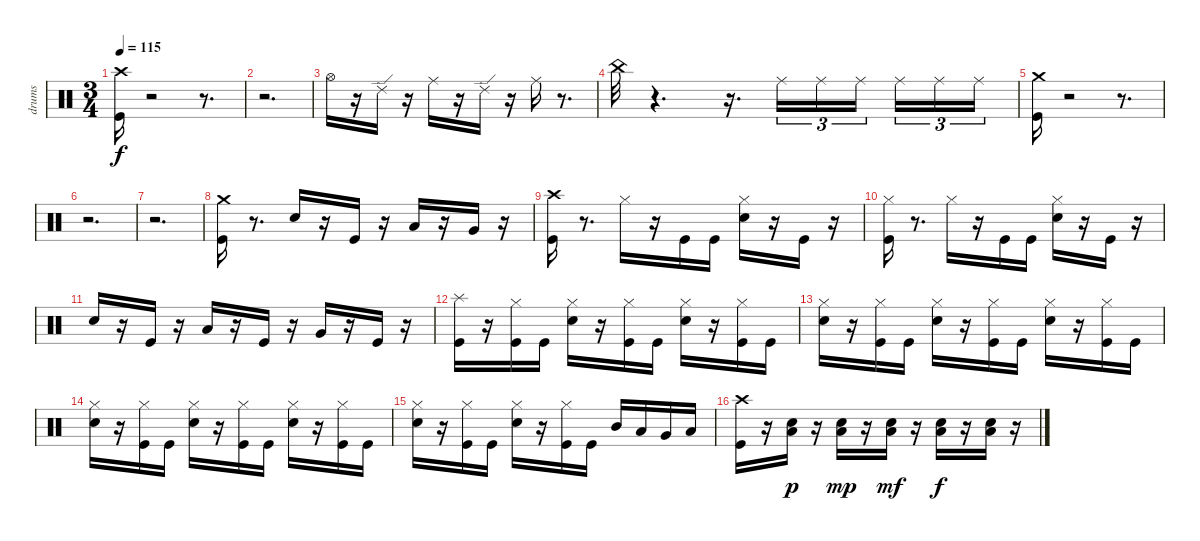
\track ("drums" "drums") {instrument percussion}
\staff {score}
\articulation defaults
\ts (3 4)
\tempo 115
\clef neutral
\ks c
("Crash high (hit)" "Kick (hit)").16{dy f} r.2 r.8{d} |
r.2{d} |
"Hi-Hat (open)".16 r.16 "Ride (edge) 2".16 r.16 "Ride (middle)".16 r.16 "Ride (edge) 2".16 r.16 "Ride (middle)".16 r.8{d} |
"China (hit)".32 r.4{d} r.16{d} "Ride (middle)".16{tu (3 2)} "Ride (middle)".16{tu (3 2)} "Ride (middle)".16{tu (3 2)} "Ride (middle)".16{tu (3 2)} "Ride (middle)".16{tu (3 2)} "Ride (middle)".16{tu (3 2)} |
("Crash medium (hit)" "Kick (hit)").16 r.2 r.8{d} |
r.2{d} |
r.2{d} |
("Crash medium (hit)" "Kick (hit)").16 r.8{d} "Electric Snare (hit)".16 r.16 "Kick (hit)".16 r.16 "Low Tom (hit)".16 r.16 "Very Low Tom (hit)".16 r.16 |
("Crash high (hit)" "Kick (hit)").16 r.8{d} "Hi-Hat (closed)".16 r.16 "Kick (hit)".16 "Kick (hit)".16 ("Hi-Hat (closed)" "Electric Snare (hit)").16 r.16 "Kick (hit)".16 r.16 |
("Hi-Hat (closed)" "Kick (hit)").16 r.8{d} "Hi-Hat (closed)".16 r.16 "Kick (hit)".16 "Kick (hit)".16 ("Hi-Hat (closed)" "Electric Snare (hit)").16 r.16 "Kick (hit)".16 r.16 |
"Electric Snare (hit)".16 r.16 "Kick (hit)".16 r.16 "Low Tom (hit)".16 r.16 "Kick (hit)".16 r.16 "Very Low Tom (hit)".16 r.16 "Kick (hit)".16 r.16 |
("Splash (hit)" "Kick (hit)").16 r.16 ("Hi-Hat (closed)" "Kick (hit)").16 "Kick (hit)".16 ("Hi-Hat (closed)" "Electric Snare (hit)").16 r.16 ("Hi-Hat (closed)" "Kick (hit)").16 "Kick (hit)".16 ("Hi-Hat (closed)" "Electric Snare (hit)").16 r.16 ("Hi-Hat (closed)" "Kick (hit)").16 "Kick (hit)".16 |
("Hi-Hat (closed)" "Electric Snare (hit)").16 r.16 ("Hi-Hat (closed)" "Kick (hit)").16 "Kick (hit)".16 ("Hi-Hat (closed)" "Electric Snare (hit)").16 r.16 ("Hi-Hat (closed)" "Kick (hit)").16 "Kick (hit)".16 ("Hi-Hat (closed)" "Electric Snare (hit)").16 r.16 ("Hi-Hat (closed)" "Kick (hit)").16 "Kick (hit)".16 |
("Hi-Hat (closed)" "Electric Snare (hit)").16 r.16 ("Hi-Hat (closed)" "Kick (hit)").16 "Kick (hit)".16 ("Hi-Hat (closed)" "Electric Snare (hit)").16 r.16 ("Hi-Hat (closed)" "Kick (hit)").16 "Kick (hit)".16 ("Hi-Hat (closed)" "Electric Snare (hit)").16 r.16 ("Hi-Hat (closed)" "Kick (hit)").16 "Kick (hit)".16 |
("Hi-Hat (closed)" "Electric Snare (hit)").16 r.16 ("Hi-Hat (closed)" "Kick (hit)").16 "Kick (hit)".16 ("Hi-Hat (closed)" "Electric Snare (hit)").16 r.16 ("Hi-Hat (closed)" "Kick (hit)").16 "Kick (hit)".16 "Mid Tom (hit)".16 "Low Tom (hit)".16 "Very Low Tom (hit)".16 "Low Floor Tom (hit)".16 |
("Crash high (hit)" "Kick (hit)").16 r.16 ("Low Floor Tom (hit)" "Electric Snare (hit)").16{dy p} r.16 ("Low Floor Tom (hit)" "Electric Snare (hit)").16{dy mp} r.16 ("Low Floor Tom (hit)" "Electric Snare (hit)").16{dy mf} r.16 ("Low Floor Tom (hit)" "Electric Snare (hit)").16{dy f} r.16 ("Low Floor Tom (hit)" "Electric Snare (hit)").16 r.16
